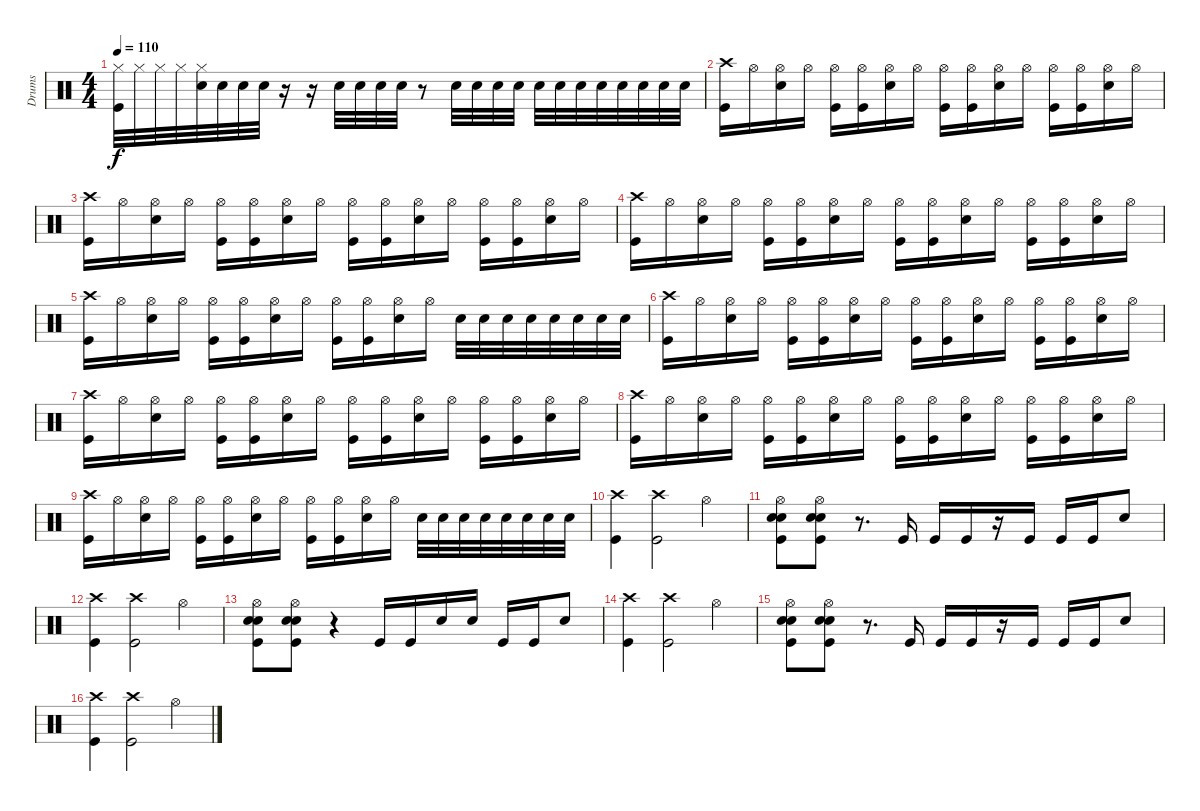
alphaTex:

\track ("Drums" "Drums") {instrument percussion}
\staff {score}
\articulation defaults
\ts (4 4)
\tempo 110
\clef neutral
\ks c
("Hi-Hat (closed)" "Kick (hit)").32{dy f} "Hi-Hat (closed)".32 "Hi-Hat (closed)".32 "Hi-Hat (closed)".32 ("Hi-Hat (closed)" "Snare (hit) 2").32 "Snare (hit) 2".32 "Snare (hit) 2".32 "Snare (hit) 2".32 r.16 r.16 "Snare (hit) 2".32 "Snare (hit) 2".32 "Snare (hit) 2".32 "Snare (hit) 2".32 r.8 "Snare (hit) 2".32 "Snare (hit) 2".32 "Snare (hit) 2".32 "Snare (hit) 2".32 "Snare (hit) 2".32 "Snare (hit) 2".32 "Snare (hit) 2".32 "Snare (hit) 2".32 "Snare (hit) 2".32 "Snare (hit) 2".32 "Snare (hit) 2".32 "Snare (hit) 2".32 |
("Crash high (hit)" "Kick (hit)").16 "Hi-Hat (open)".16 ("Hi-Hat (open)" "Snare (hit) 2").16 "Hi-Hat (open)".16 ("Hi-Hat (open)" "Kick (hit)").16 ("Hi-Hat (open)" "Kick (hit)").16 ("Hi-Hat (open)" "Snare (hit) 2").16 "Hi-Hat (open)".16 ("Hi-Hat (open)" "Kick (hit)").16 ("Hi-Hat (open)" "Kick (hit)").16 ("Hi-Hat (open)" "Snare (hit) 2").16 "Hi-Hat (open)".16 ("Hi-Hat (open)" "Kick (hit)").16 ("Hi-Hat (open)" "Kick (hit)").16 ("Hi-Hat (open)" "Snare (hit) 2").16 "Hi-Hat (open)".16 |
("Crash high (hit)" "Kick (hit)").16 "Hi-Hat (open)".16 ("Hi-Hat (open)" "Snare (hit) 2").16 "Hi-Hat (open)".16 ("Hi-Hat (open)" "Kick (hit)").16 ("Hi-Hat (open)" "Kick (hit)").16 ("Hi-Hat (open)" "Snare (hit) 2").16 "Hi-Hat (open)".16 ("Hi-Hat (open)" "Kick (hit)").16 ("Hi-Hat (open)" "Kick (hit)").16 ("Hi-Hat (open)" "Snare (hit) 2").16 "Hi-Hat (open)".16 ("Hi-Hat (open)" "Kick (hit)").16 ("Hi-Hat (open)" "Kick (hit)").16 ("Hi-Hat (open)" "Snare (hit) 2").16 "Hi-Hat (open)".16 |
("Crash high (hit)" "Kick (hit)").16 "Hi-Hat (open)".16 ("Hi-Hat (open)" "Snare (hit) 2").16 "Hi-Hat (open)".16 ("Hi-Hat (open)" "Kick (hit)").16 ("Hi-Hat (open)" "Kick (hit)").16 ("Hi-Hat (open)" "Snare (hit) 2").16 "Hi-Hat (open)".16 ("Hi-Hat (open)" "Kick (hit)").16 ("Hi-Hat (open)" "Kick (hit)").16 ("Hi-Hat (open)" "Snare (hit) 2").16 "Hi-Hat (open)".16 ("Hi-Hat (open)" "Kick (hit)").16 ("Hi-Hat (open)" "Kick (hit)").16 ("Hi-Hat (open)" "Snare (hit) 2").16 "Hi-Hat (open)".16 |
("Crash high (hit)" "Kick (hit)").16 "Hi-Hat (open)".16 ("Hi-Hat (open)" "Snare (hit) 2").16 "Hi-Hat (open)".16 ("Hi-Hat (open)" "Kick (hit)").16 ("Hi-Hat (open)" "Kick (hit)").16 ("Hi-Hat (open)" "Snare (hit) 2").16 "Hi-Hat (open)".16 ("Hi-Hat (open)" "Kick (hit)").16 ("Hi-Hat (open)" "Kick (hit)").16 ("Hi-Hat (open)" "Snare (hit) 2").16 "Hi-Hat (open)".16 "Snare (hit) 2".32 "Snare (hit) 2".32 "Snare (hit) 2".32 "Snare (hit) 2".32 "Snare (hit) 2".32 "Snare (hit) 2".32 "Snare (hit) 2".32 "Snare (hit) 2".32 |
("Crash high (hit)" "Kick (hit)").16 "Hi-Hat (open)".16 ("Hi-Hat (open)" "Snare (hit) 2").16 "Hi-Hat (open)".16 ("Hi-Hat (open)" "Kick (hit)").16 ("Hi-Hat (open)" "Kick (hit)").16 ("Hi-Hat (open)" "Snare (hit) 2").16 "Hi-Hat (open)".16 ("Hi-Hat (open)" "Kick (hit)").16 ("Hi-Hat (open)" "Kick (hit)").16 ("Hi-Hat (open)" "Snare (hit) 2").16 "Hi-Hat (open)".16 ("Hi-Hat (open)" "Kick (hit)").16 ("Hi-Hat (open)" "Kick (hit)").16 ("Hi-Hat (open)" "Snare (hit) 2").16 "Hi-Hat (open)".16 |
("Crash high (hit)" "Kick (hit)").16 "Hi-Hat (open)".16 ("Hi-Hat (open)" "Snare (hit) 2").16 "Hi-Hat (open)".16 ("Hi-Hat (open)" "Kick (hit)").16 ("Hi-Hat (open)" "Kick (hit)").16 ("Hi-Hat (open)" "Snare (hit) 2").16 "Hi-Hat (open)".16 ("Hi-Hat (open)" "Kick (hit)").16 ("Hi-Hat (open)" "Kick (hit)").16 ("Hi-Hat (open)" "Snare (hit) 2").16 "Hi-Hat (open)".16 ("Hi-Hat (open)" "Kick (hit)").16 ("Hi-Hat (open)" "Kick (hit)").16 ("Hi-Hat (open)" "Snare (hit) 2").16 "Hi-Hat (open)".16 |
("Crash high (hit)" "Kick (hit)").16 "Hi-Hat (open)".16 ("Hi-Hat (open)" "Snare (hit) 2").16 "Hi-Hat (open)".16 ("Hi-Hat (open)" "Kick (hit)").16 ("Hi-Hat (open)" "Kick (hit)").16 ("Hi-Hat (open)" "Snare (hit) 2").16 "Hi-Hat (open)".16 ("Hi-Hat (open)" "Kick (hit)").16 ("Hi-Hat (open)" "Kick (hit)").16 ("Hi-Hat (open)" "Snare (hit) 2").16 "Hi-Hat (open)".16 ("Hi-Hat (open)" "Kick (hit)").16 ("Hi-Hat (open)" "Kick (hit)").16 ("Hi-Hat (open)" "Snare (hit) 2").16 "Hi-Hat (open)".16 |
("Crash high (hit)" "Kick (hit)").16 "Hi-Hat (open)".16 ("Hi-Hat (open)" "Snare (hit) 2").16 "Hi-Hat (open)".16 ("Hi-Hat (open)" "Kick (hit)").16 ("Hi-Hat (open)" "Kick (hit)").16 ("Hi-Hat (open)" "Snare (hit) 2").16 "Hi-Hat (open)".16 ("Hi-Hat (open)" "Kick (hit)").16 ("Hi-Hat (open)" "Kick (hit)").16 ("Hi-Hat (open)" "Snare (hit) 2").16 "Hi-Hat (open)".16 "Snare (hit) 2".32 "Snare (hit) 2".32 "Snare (hit) 2".32 "Snare (hit) 2".32 "Snare (hit) 2".32 "Snare (hit) 2".32 "Snare (hit) 2".32 "Snare (hit) 2".32 |
("Crash high (hit)" "Kick (hit)").4 ("Crash high (hit)" "Kick (hit)").2 "Hi-Hat (open)".4 |
("Hi-Hat (open)" "Snare (hit) 2" "Snare (hit) 2" "Kick (hit)").8 ("Hi-Hat (open)" "Snare (hit) 2" "Snare (hit) 2" "Kick (hit)").8 r.8{d} "Kick (hit)".16 "Kick (hit)".16 "Kick (hit)".16 r.16 "Kick (hit)".16 "Kick (hit)".16 "Kick (hit)".16 "Snare (hit) 2".8 |
("Crash high (hit)" "Kick (hit)").4 ("Crash high (hit)" "Kick (hit)").2 "Hi-Hat (open)".4 |
("Hi-Hat (open)" "Snare (hit) 2" "Snare (hit) 2" "Kick (hit)").8 ("Hi-Hat (open)" "Snare (hit) 2" "Snare (hit) 2" "Kick (hit)").8 r.4 "Kick (hit)".16 "Kick (hit)".16 "Snare (hit) 2".16 "Snare (hit) 2".16 "Kick (hit)".16 "Kick (hit)".16 "Snare (hit) 2".8 |
("Crash high (hit)" "Kick (hit)").4 ("Crash high (hit)" "Kick (hit)").2 "Hi-Hat (open)".4 |
("Hi-Hat (open)" "Snare (hit) 2" "Snare (hit) 2" "Kick (hit)").8 ("Hi-Hat (open)" "Snare (hit) 2" "Snare (hit) 2" "Kick (hit)").8 r.8{d} "Kick (hit)".16 "Kick (hit)".16 "Kick (hit)".16 r.16 "Kick (hit)".16 "Kick (hit)".16 "Kick (hit)".16 "Snare (hit) 2".8 |
("Crash high (hit)" "Kick (hit)").4 ("Crash high (hit)" "Kick (hit)").2 "Hi-Hat (open)".4
